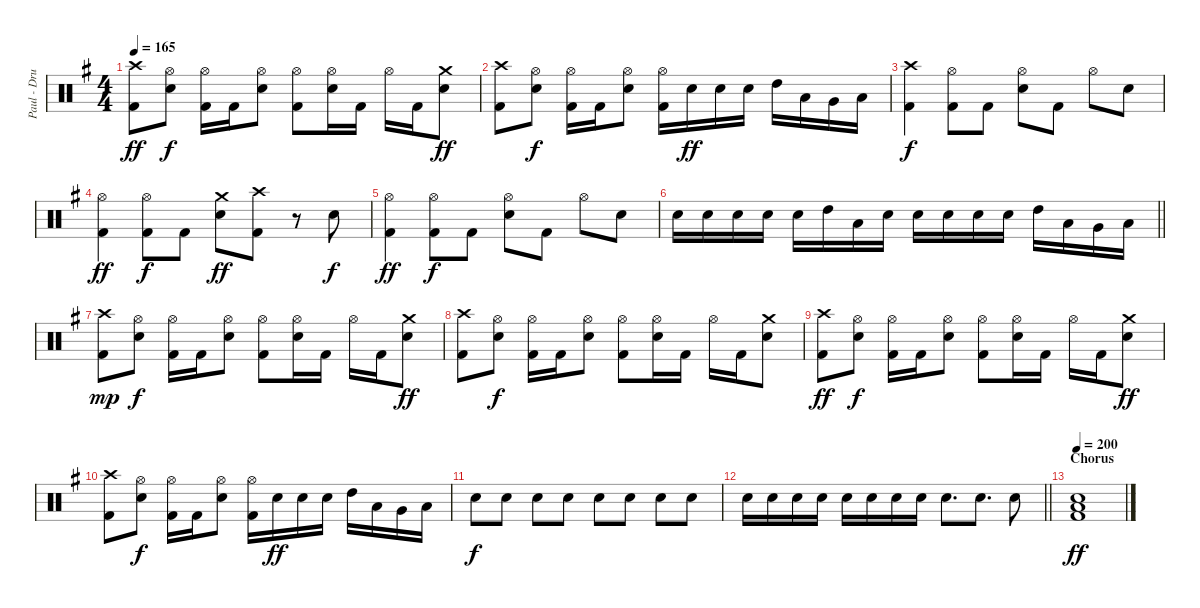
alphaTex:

\track ("Paul - Drums" "Paul - Dru") {instrument percussion}
\staff {score}
\articulation defaults
\ts (4 4)
\tempo 165
\clef neutral
\ks g
("Crash high (hit)" "Kick (hit) 2").8{dy ff} ("Hi-Hat (open)" "Electric Snare (hit)").8{dy f} ("Hi-Hat (open)" "Kick (hit) 2").16 "Kick (hit) 2".16 ("Hi-Hat (open)" "Electric Snare (hit)").8 ("Hi-Hat (open)" "Kick (hit) 2").8 ("Hi-Hat (open)" "Electric Snare (hit)").16 "Kick (hit) 2".16 "Hi-Hat (open)".16 "Kick (hit) 2".16 ("Crash medium (hit)" "Electric Snare (hit)").8{dy ff} |
("Crash high (hit)" "Kick (hit) 2").8 ("Hi-Hat (open)" "Electric Snare (hit)").8{dy f} ("Hi-Hat (open)" "Kick (hit) 2").16 "Kick (hit) 2".16 ("Hi-Hat (open)" "Electric Snare (hit)").8 ("Hi-Hat (open)" "Kick (hit) 2").16 "Electric Snare (hit)".16{dy ff} "Electric Snare (hit)".16 "Electric Snare (hit)".16 "High Tom (hit)".16 "Low Tom (hit)".16 "Very Low Tom (hit)".16 "Low Floor Tom (hit)".16 |
("Crash high (hit)" "Kick (hit) 2").4{dy f} ("Hi-Hat (open)" "Kick (hit) 2").8 "Kick (hit) 2".8 ("Hi-Hat (open)" "Electric Snare (hit)").8 "Kick (hit) 2".8 "Hi-Hat (open)".8 "Electric Snare (hit)".8 |
("Hi-Hat (open)" "Kick (hit) 2").4{dy ff} ("Hi-Hat (open)" "Kick (hit) 2").8{dy f} "Kick (hit) 2".8 ("Crash medium (hit)" "Electric Snare (hit)").8{dy ff} ("Crash high (hit)" "Kick (hit) 2").8 r.8 "Electric Snare (hit)".8{dy f} |
("Hi-Hat (open)" "Kick (hit) 2").4{dy ff} ("Hi-Hat (open)" "Kick (hit) 2").8{dy f} "Kick (hit) 2".8 ("Hi-Hat (open)" "Electric Snare (hit)").8 "Kick (hit) 2".8 "Hi-Hat (open)".8 "Electric Snare (hit)".8 |
\barLineRight lightlight "Electric Snare (hit)".16 "Electric Snare (hit)".16 "Electric Snare (hit)".16 "Electric Snare (hit)".16 "Electric Snare (hit)".16 "High Tom (hit)".16 "Low Tom (hit)".16 "Electric Snare (hit)".16 "Electric Snare (hit)".16 "Electric Snare (hit)".16 "Electric Snare (hit)".16 "Electric Snare (hit)".16 "High Tom (hit)".16 "Low Tom (hit)".16 "Very Low Tom (hit)".16 "Low Floor Tom (hit)".16
|
("Crash high (hit)" "Kick (hit) 2").8{dy mp} ("Hi-Hat (open)" "Electric Snare (hit)").8{dy f} ("Hi-Hat (open)" "Kick (hit) 2").16 "Kick (hit) 2".16 ("Hi-Hat (open)" "Electric Snare (hit)").8 ("Hi-Hat (open)" "Kick (hit) 2").8 ("Hi-Hat (open)" "Electric Snare (hit)").16 "Kick (hit) 2".16 "Hi-Hat (open)".16 "Kick (hit) 2".16 ("Crash medium (hit)" "Electric Snare (hit)").8{dy ff} |
("Crash high (hit)" "Kick (hit) 2").8 ("Hi-Hat (open)" "Electric Snare (hit)").8{dy f} ("Hi-Hat (open)" "Kick (hit) 2").16 "Kick (hit) 2".16 ("Hi-Hat (open)" "Electric Snare (hit)").8 ("Hi-Hat (open)" "Kick (hit) 2").8 ("Hi-Hat (open)" "Electric Snare (hit)").16 "Kick (hit) 2".16 "Hi-Hat (open)".16 "Kick (hit) 2".16 ("Crash medium (hit)" "Electric Snare (hit)").8 |
("Crash high (hit)" "Kick (hit) 2").8{dy ff} ("Hi-Hat (open)" "Electric Snare (hit)").8{dy f} ("Hi-Hat (open)" "Kick (hit) 2").16 "Kick (hit) 2".16 ("Hi-Hat (open)" "Electric Snare (hit)").8 ("Hi-Hat (open)" "Kick (hit) 2").8 ("Hi-Hat (open)" "Electric Snare (hit)").16 "Kick (hit) 2".16 "Hi-Hat (open)".16 "Kick (hit) 2".16 ("Crash medium (hit)" "Electric Snare (hit)").8{dy ff} |
("Crash high (hit)" "Kick (hit) 2").8 ("Hi-Hat (open)" "Electric Snare (hit)").8{dy f} ("Hi-Hat (open)" "Kick (hit) 2").16 "Kick (hit) 2".16 ("Hi-Hat (open)" "Electric Snare (hit)").8 ("Hi-Hat (open)" "Kick (hit) 2").16 "Electric Snare (hit)".16{dy ff} "Electric Snare (hit)".16 "Electric Snare (hit)".16 "High Tom (hit)".16 "Low Tom (hit)".16 "Very Low Tom (hit)".16 "Low Floor Tom (hit)".16 |
"Electric Snare (hit)".8{dy f volume 9} "Electric Snare (hit)".8{volume 13} "Electric Snare (hit)".8 "Electric Snare (hit)".8 "Electric Snare (hit)".8 "Electric Snare (hit)".8 "Electric Snare (hit)".8 "Electric Snare (hit)".8 |
\barLineRight lightlight "Electric Snare (hit)".16 "Electric Snare (hit)".16 "Electric Snare (hit)".16 "Electric Snare (hit)".16 "Electric Snare (hit)".16 "Electric Snare (hit)".16 "Electric Snare (hit)".16 "Electric Snare (hit)".16 "Electric Snare (hit)".8{d} "Electric Snare (hit)".8{d} "Electric Snare (hit)".8
|
\section ("" "Chorus")
\tempo 200
("Low Floor Tom (hit)" "Electric Snare (hit)" "Kick (hit) 2").1{dy ff}
